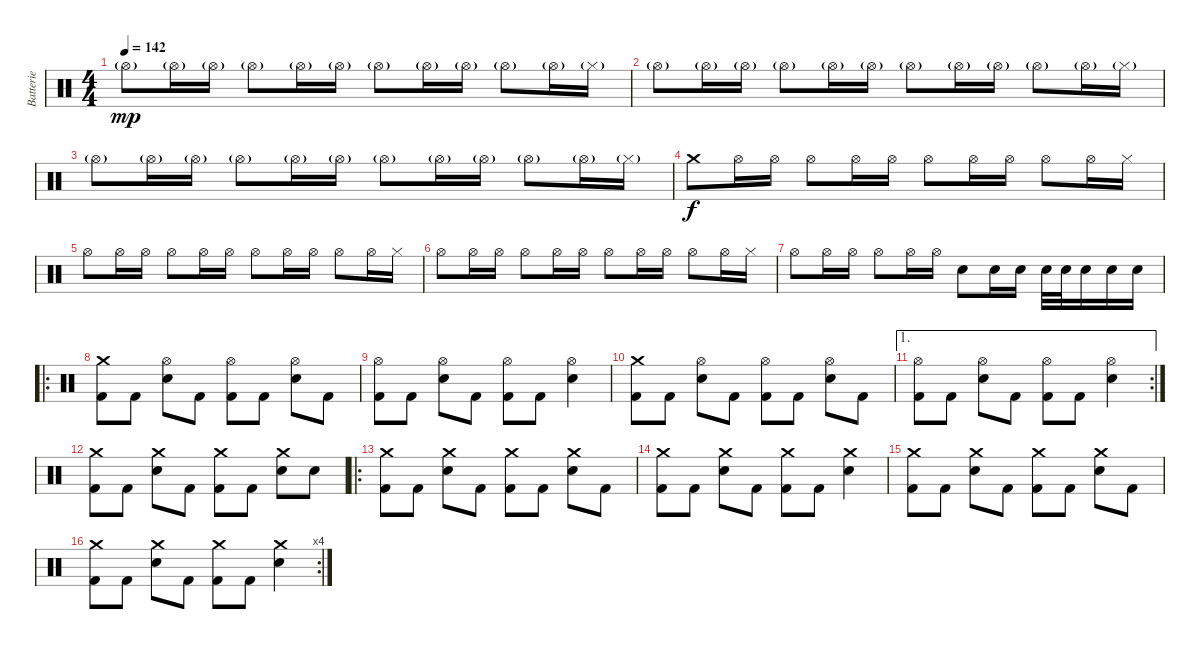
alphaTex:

\track ("Batterie" "Batterie") {instrument percussion}
\staff {score}
\articulation defaults
\ts (4 4)
\tempo 142
\clef neutral
\ks c "Hi-Hat (open)"{g}.8{dy mp} "Hi-Hat (open)"{g}.16 "Hi-Hat (open)"{g}.16 "Hi-Hat (open)"{g}.8 "Hi-Hat (open)"{g}.16 "Hi-Hat (open)"{g}.16 "Hi-Hat (open)"{g}.8 "Hi-Hat (open)"{g}.16 "Hi-Hat (open)"{g}.16 "Hi-Hat (open)"{g}.8 "Hi-Hat (open)"{g}.16 "Hi-Hat (closed)"{g}.16
|
"Hi-Hat (open)"{g}.8 "Hi-Hat (open)"{g}.16 "Hi-Hat (open)"{g}.16 "Hi-Hat (open)"{g}.8 "Hi-Hat (open)"{g}.16 "Hi-Hat (open)"{g}.16 "Hi-Hat (open)"{g}.8 "Hi-Hat (open)"{g}.16 "Hi-Hat (open)"{g}.16 "Hi-Hat (open)"{g}.8 "Hi-Hat (open)"{g}.16 "Hi-Hat (closed)"{g}.16 |
"Hi-Hat (open)"{g}.8 "Hi-Hat (open)"{g}.16 "Hi-Hat (open)"{g}.16 "Hi-Hat (open)"{g}.8 "Hi-Hat (open)"{g}.16 "Hi-Hat (open)"{g}.16 "Hi-Hat (open)"{g}.8 "Hi-Hat (open)"{g}.16 "Hi-Hat (open)"{g}.16 "Hi-Hat (open)"{g}.8 "Hi-Hat (open)"{g}.16 "Hi-Hat (closed)"{g}.16 |
"Crash medium (hit)".8{dy f} "Hi-Hat (open)".16 "Hi-Hat (open)".16 "Hi-Hat (open)".8 "Hi-Hat (open)".16 "Hi-Hat (open)".16 "Hi-Hat (open)".8 "Hi-Hat (open)".16 "Hi-Hat (open)".16 "Hi-Hat (open)".8 "Hi-Hat (open)".16 "Hi-Hat (closed)".16 |
"Hi-Hat (open)".8 "Hi-Hat (open)".16 "Hi-Hat (open)".16 "Hi-Hat (open)".8 "Hi-Hat (open)".16 "Hi-Hat (open)".16 "Hi-Hat (open)".8 "Hi-Hat (open)".16 "Hi-Hat (open)".16 "Hi-Hat (open)".8 "Hi-Hat (open)".16 "Hi-Hat (closed)".16 |
"Hi-Hat (open)".8 "Hi-Hat (open)".16 "Hi-Hat (open)".16 "Hi-Hat (open)".8 "Hi-Hat (open)".16 "Hi-Hat (open)".16 "Hi-Hat (open)".8 "Hi-Hat (open)".16 "Hi-Hat (open)".16 "Hi-Hat (open)".8 "Hi-Hat (open)".16 "Hi-Hat (closed)".16 |
"Hi-Hat (open)".8 "Hi-Hat (open)".16 "Hi-Hat (open)".16 "Hi-Hat (open)".8 "Hi-Hat (open)".16 "Hi-Hat (open)".16 "Electric Snare (hit)".8 "Electric Snare (hit)".16 "Electric Snare (hit)".16 "Electric Snare (hit)".32 "Electric Snare (hit)".32 "Electric Snare (hit)".16 "Electric Snare (hit)".16 "Electric Snare (hit)".16 |
\ro
("Kick (hit) 2" "Crash medium (hit)").8 "Kick (hit) 2".8 ("Electric Snare (hit)" "Hi-Hat (open)").8 "Kick (hit) 2".8 ("Kick (hit) 2" "Hi-Hat (open)").8 "Kick (hit) 2".8 ("Electric Snare (hit)" "Hi-Hat (open)").8 "Kick (hit) 2".8 |
("Kick (hit) 2" "Hi-Hat (open)").8 "Kick (hit) 2".8 ("Electric Snare (hit)" "Hi-Hat (open)").8 "Kick (hit) 2".8 ("Kick (hit) 2" "Hi-Hat (open)").8 "Kick (hit) 2".8 ("Electric Snare (hit)" "Hi-Hat (open)").4 |
("Kick (hit) 2" "Crash medium (hit)").8 "Kick (hit) 2".8 ("Electric Snare (hit)" "Hi-Hat (open)").8 "Kick (hit) 2".8 ("Kick (hit) 2" "Hi-Hat (open)").8 "Kick (hit) 2".8 ("Electric Snare (hit)" "Hi-Hat (open)").8 "Kick (hit) 2".8 |
\ae 1
\rc 2
("Kick (hit) 2" "Hi-Hat (open)").8 "Kick (hit) 2".8 ("Electric Snare (hit)" "Hi-Hat (open)").8 "Kick (hit) 2".8 ("Kick (hit) 2" "Hi-Hat (open)").8 "Kick (hit) 2".8 ("Electric Snare (hit)" "Hi-Hat (open)").4 |
("Kick (hit) 2" "Crash medium (hit)").8 "Kick (hit) 2".8 ("Electric Snare (hit)" "Crash medium (hit)").8 "Kick (hit) 2".8 ("Kick (hit) 2" "Crash medium (hit)").8 "Kick (hit) 2".8 ("Electric Snare (hit)" "Crash medium (hit)").8 "Electric Snare (hit)".8 |
\ro
("Kick (hit) 2" "Crash medium (hit)").8 "Kick (hit) 2".8 ("Electric Snare (hit)" "Crash medium (hit)").8 "Kick (hit) 2".8 ("Kick (hit) 2" "Crash medium (hit)").8 "Kick (hit) 2".8 ("Electric Snare (hit)" "Crash medium (hit)").8 "Kick (hit) 2".8 |
("Kick (hit) 2" "Crash medium (hit)").8 "Kick (hit) 2".8 ("Electric Snare (hit)" "Crash medium (hit)").8 "Kick (hit) 2".8 ("Kick (hit) 2" "Crash medium (hit)").8 "Kick (hit) 2".8 ("Electric Snare (hit)" "Crash medium (hit)").4 |
("Kick (hit) 2" "Crash medium (hit)").8 "Kick (hit) 2".8 ("Electric Snare (hit)" "Crash medium (hit)").8 "Kick (hit) 2".8 ("Kick (hit) 2" "Crash medium (hit)").8 "Kick (hit) 2".8 ("Electric Snare (hit)" "Crash medium (hit)").8 "Kick (hit) 2".8 |
\rc 4
("Kick (hit) 2" "Crash medium (hit)").8 "Kick (hit) 2".8 ("Electric Snare (hit)" "Crash medium (hit)").8 "Kick (hit) 2".8 ("Kick (hit) 2" "Crash medium (hit)").8 "Kick (hit) 2".8 ("Electric Snare (hit)" "Crash medium (hit)").4
